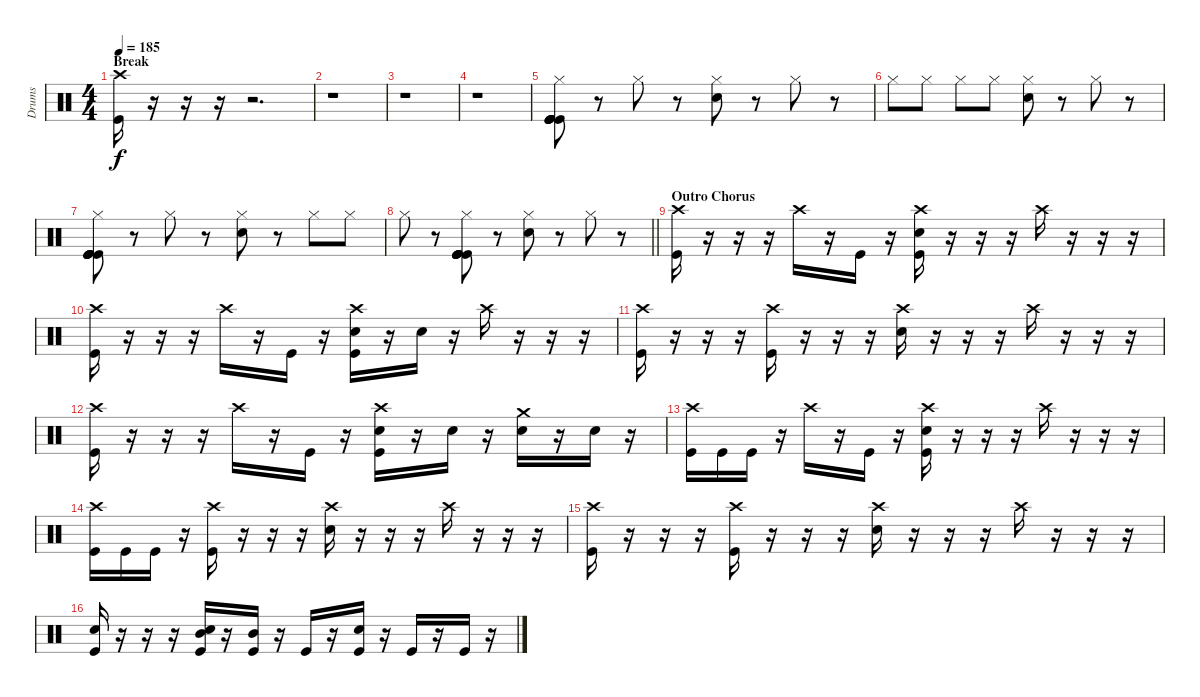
\track ("Drums" "Drums") {instrument percussion}
\staff {score}
\articulation defaults
\ts (4 4)
\section ("" "Break")
\tempo 185
\clef neutral
\ks c
("Crash high (hit)" "Kick (hit)").16{dy f} r.16 r.16 r.16 r.2{d} |
r.1 |
r.1 |
r.1 |
("Kick (hit)" "Kick (hit)" "Kick (hit)" "Hi-Hat (closed)" "Kick (hit)" "Kick (hit)").8{volume 6} r.8 "Hi-Hat (closed)".8 r.8 ("Hi-Hat (closed)" "Snare (hit) 2").8 r.8 "Hi-Hat (closed)".8 r.8 |
"Hi-Hat (closed)".8 "Hi-Hat (closed)".8 "Hi-Hat (closed)".8 "Hi-Hat (closed)".8 ("Hi-Hat (closed)" "Snare (hit) 2").8 r.8 "Hi-Hat (closed)".8 r.8 |
("Kick (hit)" "Kick (hit)" "Kick (hit)" "Hi-Hat (closed)" "Kick (hit)" "Kick (hit)").8 r.8 "Hi-Hat (closed)".8 r.8 ("Hi-Hat (closed)" "Snare (hit) 2").8 r.8 "Hi-Hat (closed)".8 "Hi-Hat (closed)".8 |
\barLineRight lightlight "Hi-Hat (closed)".8
r.8 ("Kick (hit)" "Kick (hit)" "Kick (hit)" "Hi-Hat (closed)" "Kick (hit)" "Kick (hit)").8 r.8 ("Hi-Hat (closed)" "Snare (hit) 2").8 r.8 "Hi-Hat (closed)".8 r.8 |
\section ("" "Outro Chorus")
("Crash high (hit)" "Kick (hit)").16{volume 14} r.16 r.16 r.16 "Crash high (hit)".16 r.16 "Kick (hit)".16 r.16 ("Crash high (hit)" "Snare (hit) 2" "Kick (hit)").16 r.16 r.16 r.16 "Crash high (hit)".16 r.16 r.16 r.16 |
("Crash high (hit)" "Kick (hit)").16 r.16 r.16 r.16 "Crash high (hit)".16 r.16 "Kick (hit)".16 r.16 ("Crash high (hit)" "Snare (hit) 2" "Kick (hit)").16 r.16 "Snare (hit) 2".16 r.16 "Crash high (hit)".16 r.16 r.16 r.16 |
("Crash high (hit)" "Kick (hit)").16 r.16 r.16 r.16 ("Crash high (hit)" "Kick (hit)").16 r.16 r.16 r.16 ("Crash high (hit)" "Snare (hit) 2").16 r.16 r.16 r.16 "Crash high (hit)".16 r.16 r.16 r.16 |
("Crash high (hit)" "Kick (hit)").16 r.16 r.16 r.16 "Crash high (hit)".16 r.16 "Kick (hit)".16 r.16 ("Crash high (hit)" "Snare (hit) 2" "Kick (hit)").16 r.16 "Snare (hit) 2".16 r.16 ("Crash medium (hit)" "Snare (hit) 2").16 r.16 "Snare (hit) 2".16 r.16 |
("Crash high (hit)" "Kick (hit)").16 "Kick (hit)".16 "Kick (hit)".16 r.16 "Crash high (hit)".16 r.16 "Kick (hit)".16 r.16 ("Crash high (hit)" "Snare (hit) 2" "Kick (hit)").16 r.16 r.16 r.16 "Crash high (hit)".16 r.16 r.16 r.16 |
("Crash high (hit)" "Kick (hit)").16 "Kick (hit)".16 "Kick (hit)".16 r.16 ("Crash high (hit)" "Kick (hit)").16 r.16 r.16 r.16 ("Crash high (hit)" "Snare (hit) 2").16 r.16 r.16 r.16 "Crash high (hit)".16 r.16 r.16 r.16 |
("Crash high (hit)" "Kick (hit)").16 r.16 r.16 r.16 ("Crash high (hit)" "Kick (hit)").16 r.16 r.16 r.16 ("Crash high (hit)" "Snare (hit) 2").16 r.16 r.16 r.16 "Crash high (hit)".16 r.16 r.16 r.16 |
("Snare (hit) 2" "Kick (hit)").16 r.16 r.16 r.16 ("Snare (hit) 2" "Mid Tom (hit)" "Kick (hit)").16 r.16 ("Mid Tom (hit)" "Kick (hit)").16 r.16 "Kick (hit)".16 r.16 ("Snare (hit) 2" "Kick (hit)").16 r.16 "Kick (hit)".16 r.16 "Kick (hit)".16 r.16
